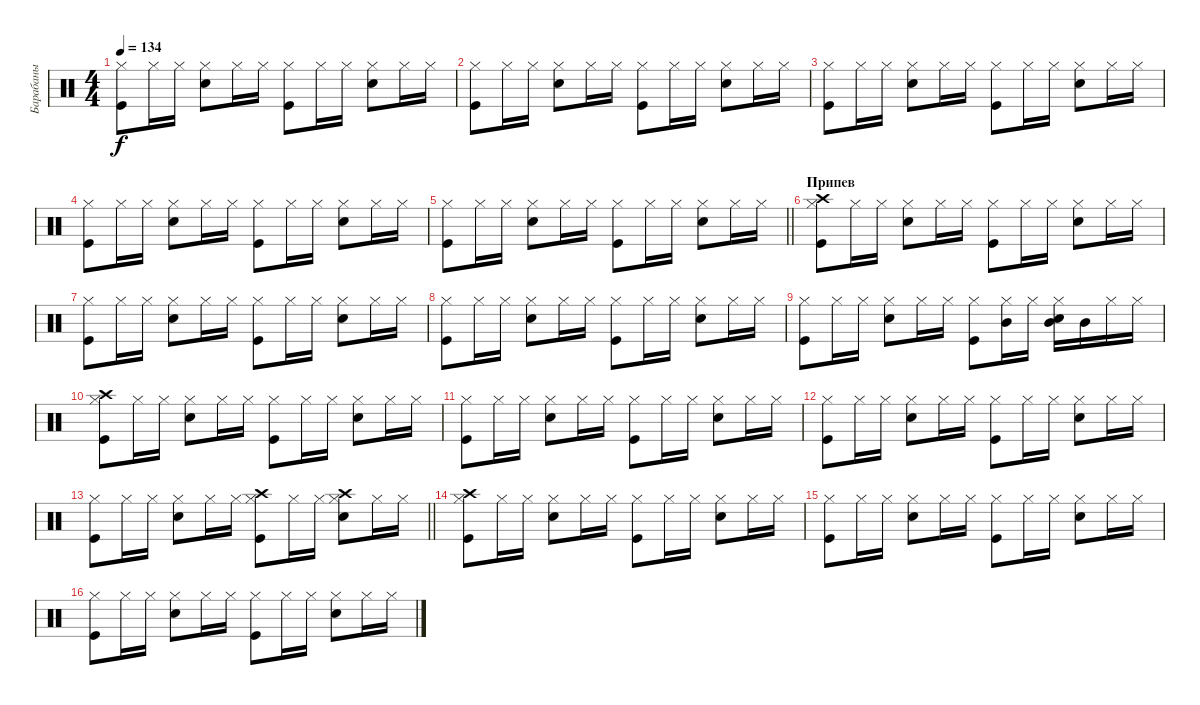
\track ("Барабаны" "Барабаны") {instrument percussion}
\staff {score}
\articulation defaults
\ts (4 4)
\tempo 134
\clef neutral
\ks c
("Kick (hit)" "Hi-Hat (closed)").8{dy f} "Hi-Hat (closed)".16 "Hi-Hat (closed)".16 ("Snare (hit) 2" "Hi-Hat (closed)").8 "Hi-Hat (closed)".16 "Hi-Hat (closed)".16 ("Kick (hit)" "Hi-Hat (closed)").8 "Hi-Hat (closed)".16 "Hi-Hat (closed)".16 ("Snare (hit) 2" "Hi-Hat (closed)").8 "Hi-Hat (closed)".16 "Hi-Hat (closed)".16 |
("Kick (hit)" "Hi-Hat (closed)").8 "Hi-Hat (closed)".16 "Hi-Hat (closed)".16 ("Snare (hit) 2" "Hi-Hat (closed)").8 "Hi-Hat (closed)".16 "Hi-Hat (closed)".16 ("Kick (hit)" "Hi-Hat (closed)").8 "Hi-Hat (closed)".16 "Hi-Hat (closed)".16 ("Snare (hit) 2" "Hi-Hat (closed)").8 "Hi-Hat (closed)".16 "Hi-Hat (closed)".16 |
("Kick (hit)" "Hi-Hat (closed)").8 "Hi-Hat (closed)".16 "Hi-Hat (closed)".16 ("Snare (hit) 2" "Hi-Hat (closed)").8 "Hi-Hat (closed)".16 "Hi-Hat (closed)".16 ("Kick (hit)" "Hi-Hat (closed)").8 "Hi-Hat (closed)".16 "Hi-Hat (closed)".16 ("Snare (hit) 2" "Hi-Hat (closed)").8 "Hi-Hat (closed)".16 "Hi-Hat (closed)".16 |
("Kick (hit)" "Hi-Hat (closed)").8 "Hi-Hat (closed)".16 "Hi-Hat (closed)".16 ("Snare (hit) 2" "Hi-Hat (closed)").8 "Hi-Hat (closed)".16 "Hi-Hat (closed)".16 ("Kick (hit)" "Hi-Hat (closed)").8 "Hi-Hat (closed)".16 "Hi-Hat (closed)".16 ("Snare (hit) 2" "Hi-Hat (closed)").8 "Hi-Hat (closed)".16 "Hi-Hat (closed)".16 |
\barLineRight lightlight
("Kick (hit)" "Hi-Hat (closed)").8 "Hi-Hat (closed)".16 "Hi-Hat (closed)".16 ("Snare (hit) 2" "Hi-Hat (closed)").8 "Hi-Hat (closed)".16 "Hi-Hat (closed)".16 ("Kick (hit)" "Hi-Hat (closed)").8 "Hi-Hat (closed)".16 "Hi-Hat (closed)".16 ("Snare (hit) 2" "Hi-Hat (closed)").8 "Hi-Hat (closed)".16 "Hi-Hat (closed)".16 |
\section ("" "Припев")
("Kick (hit)" "Hi-Hat (closed)" "Crash high (hit)").8 "Hi-Hat (closed)".16 "Hi-Hat (closed)".16 ("Snare (hit) 2" "Hi-Hat (closed)").8 "Hi-Hat (closed)".16 "Hi-Hat (closed)".16 ("Kick (hit)" "Hi-Hat (closed)").8 "Hi-Hat (closed)".16 "Hi-Hat (closed)".16 ("Snare (hit) 2" "Hi-Hat (closed)").8 "Hi-Hat (closed)".16 "Hi-Hat (closed)".16 |
("Kick (hit)" "Hi-Hat (closed)").8 "Hi-Hat (closed)".16 "Hi-Hat (closed)".16 ("Snare (hit) 2" "Hi-Hat (closed)").8 "Hi-Hat (closed)".16 "Hi-Hat (closed)".16 ("Kick (hit)" "Hi-Hat (closed)").8 "Hi-Hat (closed)".16 "Hi-Hat (closed)".16 ("Snare (hit) 2" "Hi-Hat (closed)").8 "Hi-Hat (closed)".16 "Hi-Hat (closed)".16 |
("Kick (hit)" "Hi-Hat (closed)").8 "Hi-Hat (closed)".16 "Hi-Hat (closed)".16 ("Snare (hit) 2" "Hi-Hat (closed)").8 "Hi-Hat (closed)".16 "Hi-Hat (closed)".16 ("Kick (hit)" "Hi-Hat (closed)").8 "Hi-Hat (closed)".16 "Hi-Hat (closed)".16 ("Snare (hit) 2" "Hi-Hat (closed)").8 "Hi-Hat (closed)".16 "Hi-Hat (closed)".16 |
("Kick (hit)" "Hi-Hat (closed)").8 "Hi-Hat (closed)".16 "Hi-Hat (closed)".16 ("Snare (hit) 2" "Hi-Hat (closed)").8 "Hi-Hat (closed)".16 "Hi-Hat (closed)".16 ("Kick (hit)" "Hi-Hat (closed)").8 ("Hi-Hat (closed)" "Mid Tom (hit)").16 "Hi-Hat (closed)".16 ("Snare (hit) 2" "Hi-Hat (closed)" "Mid Tom (hit)").16 "Mid Tom (hit)".16 "Hi-Hat (closed)".16 "Hi-Hat (closed)".16 |
("Kick (hit)" "Hi-Hat (closed)" "Crash high (hit)").8 "Hi-Hat (closed)".16 "Hi-Hat (closed)".16 ("Snare (hit) 2" "Hi-Hat (closed)").8 "Hi-Hat (closed)".16 "Hi-Hat (closed)".16 ("Kick (hit)" "Hi-Hat (closed)").8 "Hi-Hat (closed)".16 "Hi-Hat (closed)".16 ("Snare (hit) 2" "Hi-Hat (closed)").8 "Hi-Hat (closed)".16 "Hi-Hat (closed)".16 |
("Kick (hit)" "Hi-Hat (closed)").8 "Hi-Hat (closed)".16 "Hi-Hat (closed)".16 ("Snare (hit) 2" "Hi-Hat (closed)").8 "Hi-Hat (closed)".16 "Hi-Hat (closed)".16 ("Kick (hit)" "Hi-Hat (closed)").8 "Hi-Hat (closed)".16 "Hi-Hat (closed)".16 ("Snare (hit) 2" "Hi-Hat (closed)").8 "Hi-Hat (closed)".16 "Hi-Hat (closed)".16 |
("Kick (hit)" "Hi-Hat (closed)").8 "Hi-Hat (closed)".16 "Hi-Hat (closed)".16 ("Snare (hit) 2" "Hi-Hat (closed)").8 "Hi-Hat (closed)".16 "Hi-Hat (closed)".16 ("Kick (hit)" "Hi-Hat (closed)").8 "Hi-Hat (closed)".16 "Hi-Hat (closed)".16 ("Snare (hit) 2" "Hi-Hat (closed)").8 "Hi-Hat (closed)".16 "Hi-Hat (closed)".16 |
\barLineRight lightlight
("Kick (hit)" "Hi-Hat (closed)").8 "Hi-Hat (closed)".16 "Hi-Hat (closed)".16 ("Snare (hit) 2" "Hi-Hat (closed)").8 "Hi-Hat (closed)".16 "Hi-Hat (closed)".16 ("Kick (hit)" "Hi-Hat (closed)" "Crash high (hit)").8 "Hi-Hat (closed)".16 "Hi-Hat (closed)".16 ("Snare (hit) 2" "Hi-Hat (closed)" "Crash high (hit)").8 "Hi-Hat (closed)".16 "Hi-Hat (closed)".16 |
("Kick (hit)" "Hi-Hat (closed)" "Crash high (hit)").8 "Hi-Hat (closed)".16 "Hi-Hat (closed)".16 ("Snare (hit) 2" "Hi-Hat (closed)").8 "Hi-Hat (closed)".16 "Hi-Hat (closed)".16 ("Kick (hit)" "Hi-Hat (closed)").8 "Hi-Hat (closed)".16 "Hi-Hat (closed)".16 ("Snare (hit) 2" "Hi-Hat (closed)").8 "Hi-Hat (closed)".16 "Hi-Hat (closed)".16 |
("Kick (hit)" "Hi-Hat (closed)").8 "Hi-Hat (closed)".16 "Hi-Hat (closed)".16 ("Snare (hit) 2" "Hi-Hat (closed)").8 "Hi-Hat (closed)".16 "Hi-Hat (closed)".16 ("Kick (hit)" "Hi-Hat (closed)").8 "Hi-Hat (closed)".16 "Hi-Hat (closed)".16 ("Snare (hit) 2" "Hi-Hat (closed)").8 "Hi-Hat (closed)".16 "Hi-Hat (closed)".16 |
("Kick (hit)" "Hi-Hat (closed)").8 "Hi-Hat (closed)".16 "Hi-Hat (closed)".16 ("Snare (hit) 2" "Hi-Hat (closed)").8 "Hi-Hat (closed)".16 "Hi-Hat (closed)".16 ("Kick (hit)" "Hi-Hat (closed)").8 "Hi-Hat (closed)".16 "Hi-Hat (closed)".16 ("Snare (hit) 2" "Hi-Hat (closed)").8 "Hi-Hat (closed)".16 "Hi-Hat (closed)".16
